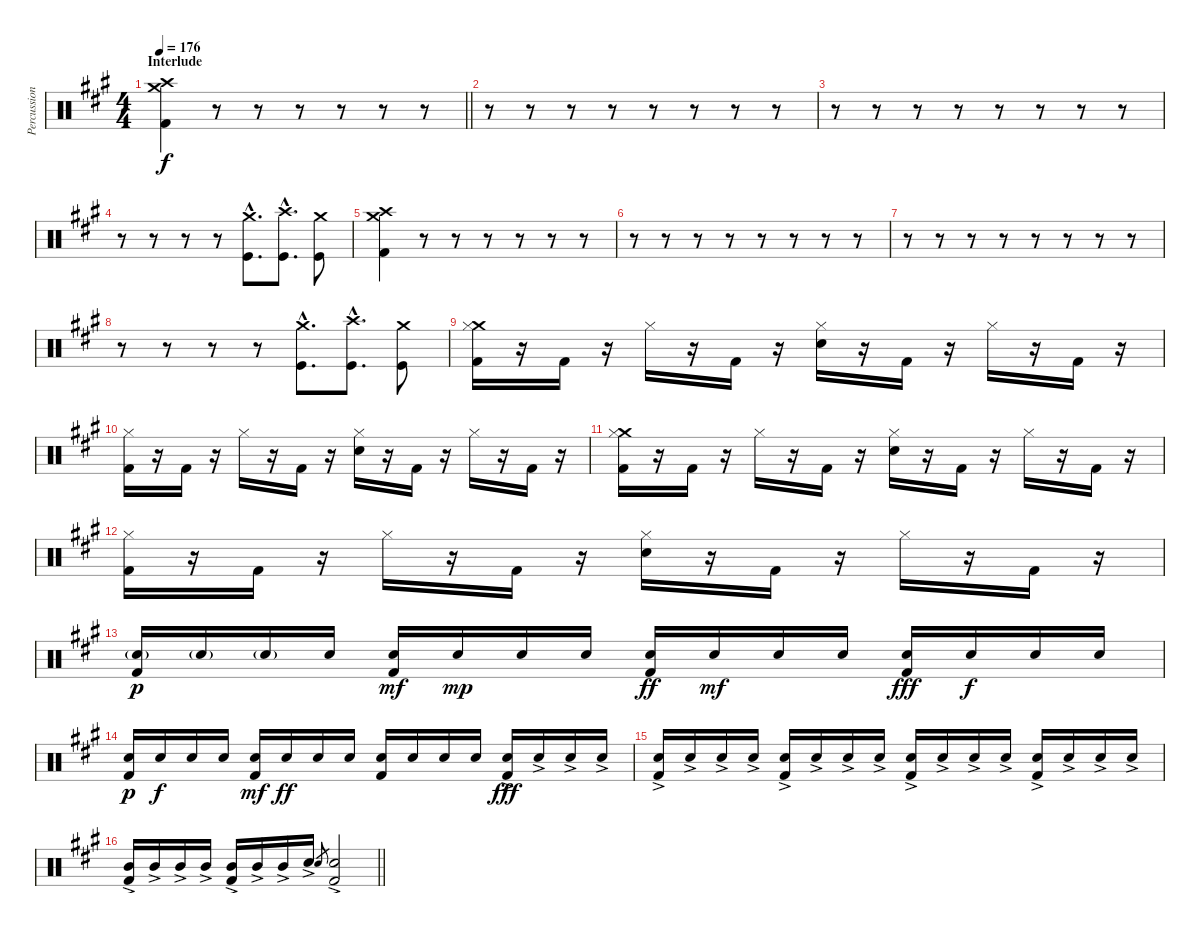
\track ("Percussion" "Percussion") {instrument percussion}
\staff {score}
\articulation defaults
\ts (4 4)
\section ("" "Interlude")
\tempo 176
\clef neutral
\barLineRight lightlight
\ks a
("Crash high (hit)" "Crash medium (hit)" "Kick (hit) 2").4{dy f} r.8 r.8 r.8 r.8 r.8 r.8 |
r.8 r.8 r.8 r.8 r.8 r.8 r.8 r.8 |
r.8 r.8 r.8 r.8 r.8 r.8 r.8 r.8 |
r.8 r.8 r.8 r.8 ("Crash medium (hit)"{hac} "Kick (hit)"{hac}).8{d} ("Crash high (hit)"{hac} "Kick (hit)"{hac}).8{d} ("Crash medium (hit)" "Kick (hit)").8 |
("Crash high (hit)" "Crash medium (hit)" "Kick (hit) 2").4 r.8 r.8 r.8 r.8 r.8 r.8 |
r.8 r.8 r.8 r.8 r.8 r.8 r.8 r.8 |
r.8 r.8 r.8 r.8 r.8 r.8 r.8 r.8 |
r.8 r.8 r.8 r.8 ("Crash medium (hit)"{hac} "Kick (hit)"{hac}).8{d} ("Crash high (hit)"{hac} "Kick (hit)"{hac}).8{d} ("Crash medium (hit)" "Kick (hit)").8 |
("Crash medium (hit)" "Hi-Hat (closed)" "Kick (hit) 2").16 r.16 "Kick (hit) 2".16 r.16 "Hi-Hat (closed)".16 r.16 "Kick (hit) 2".16 r.16 ("Hi-Hat (closed)" "Snare (hit) 2").16 r.16 "Kick (hit) 2".16 r.16 "Hi-Hat (closed)".16 r.16 "Kick (hit) 2".16 r.16 |
("Hi-Hat (closed)" "Kick (hit) 2").16 r.16 "Kick (hit) 2".16 r.16 "Hi-Hat (closed)".16 r.16 "Kick (hit) 2".16 r.16 ("Hi-Hat (closed)" "Snare (hit) 2").16 r.16 "Kick (hit) 2".16 r.16 "Hi-Hat (closed)".16 r.16 "Kick (hit) 2".16 r.16 |
("Crash medium (hit)" "Hi-Hat (closed)" "Kick (hit) 2").16 r.16 "Kick (hit) 2".16 r.16 "Hi-Hat (closed)".16 r.16 "Kick (hit) 2".16 r.16 ("Hi-Hat (closed)" "Snare (hit) 2").16 r.16 "Kick (hit) 2".16 r.16 "Hi-Hat (closed)".16 r.16 "Kick (hit) 2".16 r.16 |
("Hi-Hat (closed)" "Kick (hit) 2").16 r.16 "Kick (hit) 2".16 r.16 "Hi-Hat (closed)".16 r.16 "Kick (hit) 2".16 r.16 ("Hi-Hat (closed)" "Snare (hit) 2").16 r.16 "Kick (hit) 2".16 r.16 "Hi-Hat (closed)".16 r.16 "Kick (hit) 2".16 r.16 |
("Snare (hit) 2"{g} "Kick (hit) 2").16{dy p} "Snare (hit) 2"{g}.16 "Snare (hit) 2"{g}.16 "Snare (hit) 2".16 ("Snare (hit) 2" "Kick (hit) 2").16{dy mf} "Snare (hit) 2".16{dy mp} "Snare (hit) 2".16 "Snare (hit) 2".16 ("Snare (hit) 2" "Kick (hit) 2").16{dy ff} "Snare (hit) 2".16{dy mf} "Snare (hit) 2".16 "Snare (hit) 2".16 ("Snare (hit) 2" "Kick (hit) 2").16{dy fff} "Snare (hit) 2".16{dy f} "Snare (hit) 2".16 "Snare (hit) 2".16 |
("Snare (hit) 2" "Kick (hit) 2").16{dy p} "Snare (hit) 2".16{dy f} "Snare (hit) 2".16 "Snare (hit) 2".16 ("Snare (hit) 2" "Kick (hit) 2").16{dy mf} "Snare (hit) 2".16{dy ff} "Snare (hit) 2".16 "Snare (hit) 2".16 ("Snare (hit) 2" "Kick (hit) 2").16 "Snare (hit) 2".16 "Snare (hit) 2".16 "Snare (hit) 2".16 ("Snare (hit) 2"{ac} "Kick (hit) 2").16{dy fff} "Snare (hit) 2"{ac}.16 "Snare (hit) 2"{ac}.16 "Snare (hit) 2"{ac}.16 |
("Snare (hit) 2"{ac} "Kick (hit) 2").16 "Snare (hit) 2"{ac}.16 "Snare (hit) 2"{ac}.16 "Snare (hit) 2"{ac}.16 ("Snare (hit) 2"{ac} "Kick (hit) 2").16 "Snare (hit) 2"{ac}.16 "Snare (hit) 2"{ac}.16 "Snare (hit) 2"{ac}.16 ("Snare (hit) 2"{ac} "Kick (hit) 2").16 "Snare (hit) 2"{ac}.16 "Snare (hit) 2"{ac}.16 "Snare (hit) 2"{ac}.16 ("Snare (hit) 2"{ac} "Kick (hit) 2").16 "Snare (hit) 2"{ac}.16 "Snare (hit) 2"{ac}.16 "Snare (hit) 2"{ac}.16 |
\barLineRight lightlight
("Mid Tom (hit)"{ac} "Kick (hit) 2").16 "Mid Tom (hit)"{ac}.16 "Mid Tom (hit)"{ac}.16 "Mid Tom (hit)"{ac}.16 ("Mid Tom (hit)"{ac} "Kick (hit) 2").16 "Mid Tom (hit)"{ac}.16 "Mid Tom (hit)"{ac}.16 "Snare (hit) 2"{ac}.16 "Snare (hit) 2".8{gr} ("Snare (hit) 2"{ac} "Kick (hit) 2").2
